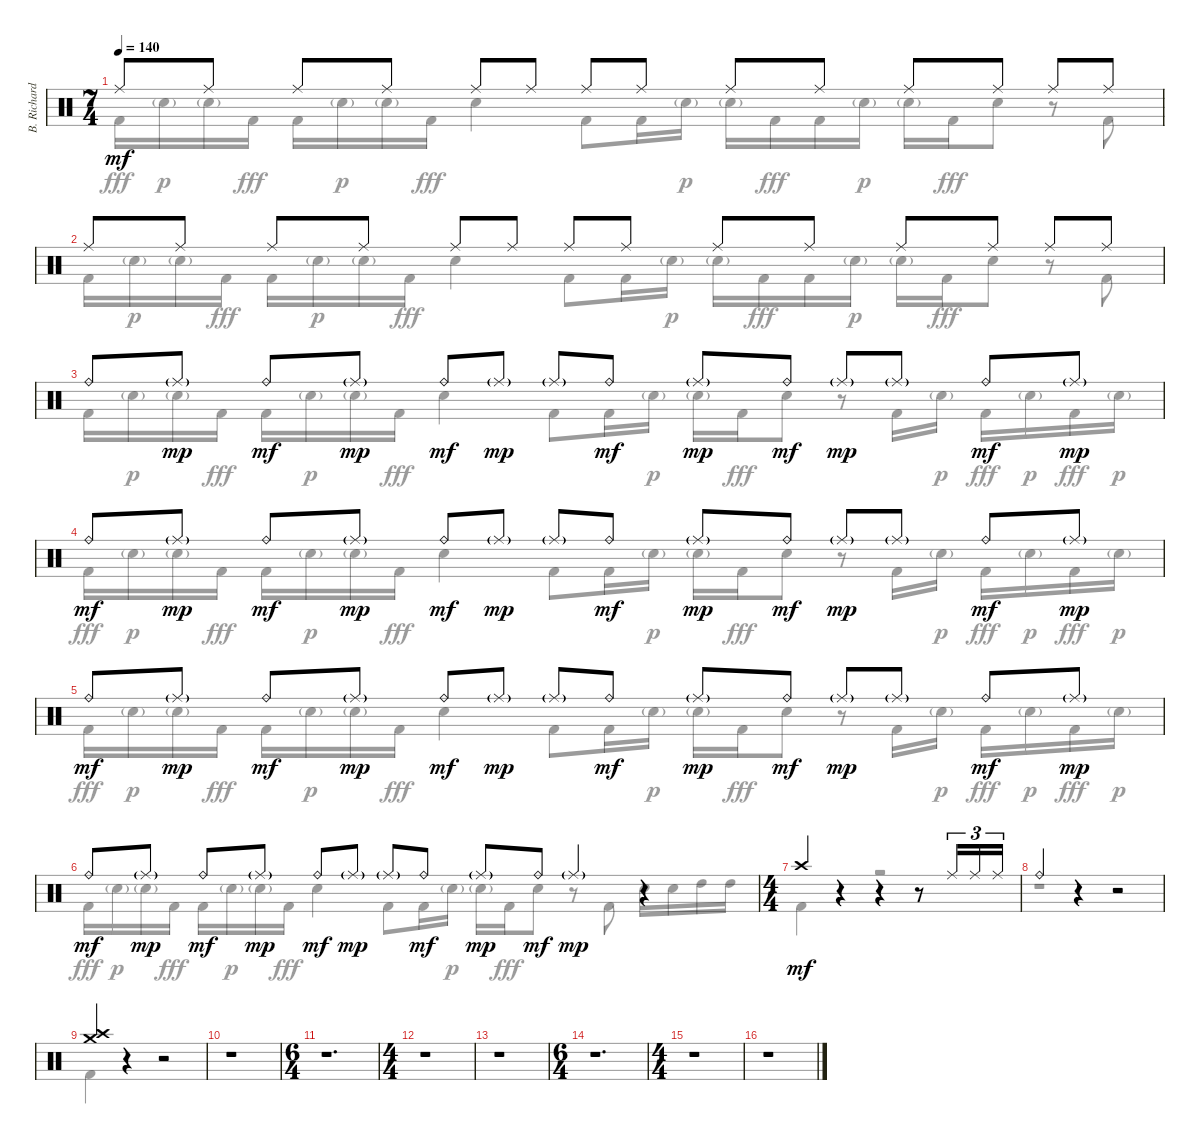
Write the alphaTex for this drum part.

\track ("B. Richardson Drums" "B. Richard") {instrument percussion}
\staff {score}
\articulation defaults
\voice
\ts (7 4)
\tempo 140
\clef neutral
\ks c "Ride (middle)".8{dy mf} "Ride (middle)".8 "Ride (middle)".8 "Ride (middle)".8 "Ride (middle)".8 "Ride (middle)".8 "Ride (middle)".8 "Ride (middle)".8 "Ride (middle)".8 "Ride (middle)".8 "Ride (middle)".8 "Ride (middle)".8 "Ride (middle)".8 "Ride (middle)".8
|
"Ride (middle)".8 "Ride (middle)".8 "Ride (middle)".8 "Ride (middle)".8 "Ride (middle)".8 "Ride (middle)".8 "Ride (middle)".8 "Ride (middle)".8 "Ride (middle)".8 "Ride (middle)".8 "Ride (middle)".8 "Ride (middle)".8 "Ride (middle)".8 "Ride (middle)".8 |
"Ride (bell)".8 "Ride (middle)"{g}.8{dy mp} "Ride (bell)".8{dy mf} "Ride (middle)"{g}.8{dy mp} "Ride (bell)".8{dy mf} "Ride (middle)"{g}.8{dy mp} "Ride (middle)"{g}.8 "Ride (bell)".8{dy mf} "Ride (middle)"{g}.8{dy mp} "Ride (bell)".8{dy mf} "Ride (middle)"{g}.8{dy mp} "Ride (middle)"{g}.8 "Ride (bell)".8{dy mf} "Ride (middle)"{g}.8{dy mp} |
"Ride (bell)".8{dy mf} "Ride (middle)"{g}.8{dy mp} "Ride (bell)".8{dy mf} "Ride (middle)"{g}.8{dy mp} "Ride (bell)".8{dy mf} "Ride (middle)"{g}.8{dy mp} "Ride (middle)"{g}.8 "Ride (bell)".8{dy mf} "Ride (middle)"{g}.8{dy mp} "Ride (bell)".8{dy mf} "Ride (middle)"{g}.8{dy mp} "Ride (middle)"{g}.8 "Ride (bell)".8{dy mf} "Ride (middle)"{g}.8{dy mp} |
"Ride (bell)".8{dy mf} "Ride (middle)"{g}.8{dy mp} "Ride (bell)".8{dy mf} "Ride (middle)"{g}.8{dy mp} "Ride (bell)".8{dy mf} "Ride (middle)"{g}.8{dy mp} "Ride (middle)"{g}.8 "Ride (bell)".8{dy mf} "Ride (middle)"{g}.8{dy mp} "Ride (bell)".8{dy mf} "Ride (middle)"{g}.8{dy mp} "Ride (middle)"{g}.8 "Ride (bell)".8{dy mf} "Ride (middle)"{g}.8{dy mp} |
"Ride (bell)".8{dy mf} "Ride (middle)"{g}.8{dy mp} "Ride (bell)".8{dy mf} "Ride (middle)"{g}.8{dy mp} "Ride (bell)".8{dy mf} "Ride (middle)"{g}.8{dy mp} "Ride (middle)"{g}.8 "Ride (bell)".8{dy mf} "Ride (middle)"{g}.8{dy mp} "Ride (bell)".8{dy mf} "Ride (middle)"{g}.4{dy mp} r.4 |
\ts (4 4)
"Crash high (hit)".4{dy mf} r.4 r.4 r.8 "Ride (middle)".16{tu (3 2)} "Ride (middle)".16{tu (3 2)} "Ride (middle)".16{tu (3 2)} |
"Ride (bell)".4 r.4 r.2 |
("Crash high (hit)" "Crash medium (hit)").4 r.4 r.2 |
r.1 |
\ts (6 4)
r.1{d} |
\ts (4 4)
r.1 |
r.1 |
\ts (6 4)
r.1{d} |
\ts (4 4)
r.1 |
r.1
\voice
\clef neutral
\ottava regular
\simile none
\ks c "Kick (hit) 2".16{dy fff} "Electric Snare (hit)"{g}.16{dy p} "Electric Snare (hit)"{g}.16 "Kick (hit) 2".16{dy fff} "Kick (hit) 2".16 "Electric Snare (hit)"{g}.16{dy p} "Electric Snare (hit)"{g}.16 "Kick (hit) 2".16{dy fff} "Electric Snare (hit)".4 "Kick (hit) 2".8 "Kick (hit) 2".16 "Electric Snare (hit)"{g}.16{dy p} "Electric Snare (hit)"{g}.16 "Kick (hit) 2".16{dy fff} "Kick (hit) 2".16 "Electric Snare (hit)"{g}.16{dy p} "Electric Snare (hit)"{g}.16 "Kick (hit) 2".16{dy fff} "Electric Snare (hit)".8
r.8 "Kick (hit) 2".8 |
"Kick (hit) 2".16 "Electric Snare (hit)"{g}.16{dy p} "Electric Snare (hit)"{g}.16 "Kick (hit) 2".16{dy fff} "Kick (hit) 2".16 "Electric Snare (hit)"{g}.16{dy p} "Electric Snare (hit)"{g}.16 "Kick (hit) 2".16{dy fff} "Electric Snare (hit)".4 "Kick (hit) 2".8 "Kick (hit) 2".16 "Electric Snare (hit)"{g}.16{dy p} "Electric Snare (hit)"{g}.16 "Kick (hit) 2".16{dy fff} "Kick (hit) 2".16 "Electric Snare (hit)"{g}.16{dy p} "Electric Snare (hit)"{g}.16 "Kick (hit) 2".16{dy fff} "Electric Snare (hit)".8 r.8 "Kick (hit) 2".8 |
"Kick (hit) 2".16 "Electric Snare (hit)"{g}.16{dy p} "Electric Snare (hit)"{g}.16 "Kick (hit) 2".16{dy fff} "Kick (hit) 2".16 "Electric Snare (hit)"{g}.16{dy p} "Electric Snare (hit)"{g}.16 "Kick (hit) 2".16{dy fff} "Electric Snare (hit)".4 "Kick (hit) 2".8 "Kick (hit) 2".16 "Electric Snare (hit)"{g}.16{dy p} "Electric Snare (hit)"{g}.16 "Kick (hit) 2".16{dy fff} "Electric Snare (hit)".8 r.8 "Kick (hit) 2".16 "Electric Snare (hit)"{g}.16{dy p} "Kick (hit) 2".16{dy fff} "Electric Snare (hit)"{g}.16{dy p} "Kick (hit) 2".16{dy fff} "Electric Snare (hit)"{g}.16{dy p} |
"Kick (hit) 2".16{dy fff} "Electric Snare (hit)"{g}.16{dy p} "Electric Snare (hit)"{g}.16 "Kick (hit) 2".16{dy fff} "Kick (hit) 2".16 "Electric Snare (hit)"{g}.16{dy p} "Electric Snare (hit)"{g}.16 "Kick (hit) 2".16{dy fff} "Electric Snare (hit)".4 "Kick (hit) 2".8 "Kick (hit) 2".16 "Electric Snare (hit)"{g}.16{dy p} "Electric Snare (hit)"{g}.16 "Kick (hit) 2".16{dy fff} "Electric Snare (hit)".8 r.8 "Kick (hit) 2".16 "Electric Snare (hit)"{g}.16{dy p} "Kick (hit) 2".16{dy fff} "Electric Snare (hit)"{g}.16{dy p} "Kick (hit) 2".16{dy fff} "Electric Snare (hit)"{g}.16{dy p} |
"Kick (hit) 2".16{dy fff} "Electric Snare (hit)"{g}.16{dy p} "Electric Snare (hit)"{g}.16 "Kick (hit) 2".16{dy fff} "Kick (hit) 2".16 "Electric Snare (hit)"{g}.16{dy p} "Electric Snare (hit)"{g}.16 "Kick (hit) 2".16{dy fff} "Electric Snare (hit)".4 "Kick (hit) 2".8 "Kick (hit) 2".16 "Electric Snare (hit)"{g}.16{dy p} "Electric Snare (hit)"{g}.16 "Kick (hit) 2".16{dy fff} "Electric Snare (hit)".8 r.8 "Kick (hit) 2".16 "Electric Snare (hit)"{g}.16{dy p} "Kick (hit) 2".16{dy fff} "Electric Snare (hit)"{g}.16{dy p} "Kick (hit) 2".16{dy fff} "Electric Snare (hit)"{g}.16{dy p} |
"Kick (hit) 2".16{dy fff} "Electric Snare (hit)"{g}.16{dy p} "Electric Snare (hit)"{g}.16 "Kick (hit) 2".16{dy fff} "Kick (hit) 2".16 "Electric Snare (hit)"{g}.16{dy p} "Electric Snare (hit)"{g}.16 "Kick (hit) 2".16{dy fff} "Electric Snare (hit)".4 "Kick (hit) 2".8 "Kick (hit) 2".16 "Electric Snare (hit)"{g}.16{dy p} "Electric Snare (hit)"{g}.16 "Kick (hit) 2".16{dy fff} "Electric Snare (hit)".8 r.8 "Kick (hit) 2".8 "Electric Snare (hit)".16 "Electric Snare (hit)".16 "High Tom (hit)".16 "High Tom (hit)".16 |
"Kick (hit) 2".4 r.4 r.2 |
r.1 |
"Kick (hit) 2".4 r.4 r.2 |
r.1 |
r.1{d} |
r.1 |
r.1 |
r.1{d} |
r.1 |
r.1
